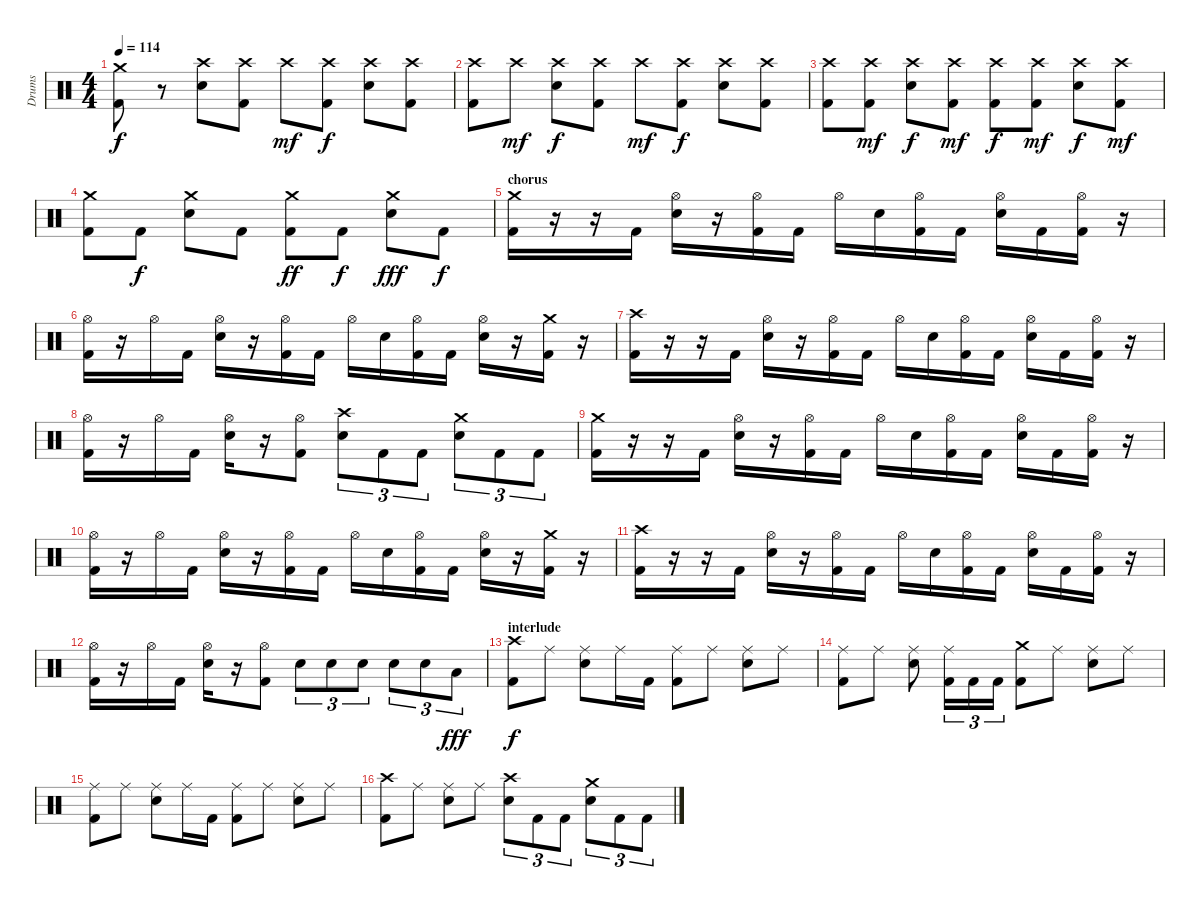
\track ("Drums" "Drums") {instrument percussion}
\staff {score}
\articulation defaults
\ts (4 4)
\tempo 114
\clef neutral
\ks c
("Crash medium (hit)" "Kick (hit) 2").8{dy f} r.8 ("Crash high (hit)" "Snare (hit) 2").8 ("Crash high (hit)" "Kick (hit) 2").8 "Crash high (hit)".8{dy mf} ("Crash high (hit)" "Kick (hit) 2").8{dy f} ("Crash high (hit)" "Snare (hit) 2").8 ("Crash high (hit)" "Kick (hit) 2").8 |
("Crash high (hit)" "Kick (hit) 2").8 "Crash high (hit)".8{dy mf} ("Crash high (hit)" "Snare (hit) 2").8{dy f} ("Crash high (hit)" "Kick (hit) 2").8 "Crash high (hit)".8{dy mf} ("Crash high (hit)" "Kick (hit) 2").8{dy f} ("Crash high (hit)" "Snare (hit) 2").8 ("Crash high (hit)" "Kick (hit) 2").8 |
("Crash high (hit)" "Kick (hit) 2").8 ("Crash high (hit)" "Kick (hit) 2").8{dy mf} ("Crash high (hit)" "Snare (hit) 2").8{dy f} ("Crash high (hit)" "Kick (hit) 2").8{dy mf} ("Crash high (hit)" "Kick (hit) 2").8{dy f} ("Crash high (hit)" "Kick (hit) 2").8{dy mf} ("Crash high (hit)" "Snare (hit) 2").8{dy f} ("Crash high (hit)" "Kick (hit) 2").8{dy mf} |
("Crash medium (hit)" "Kick (hit) 2").8 "Kick (hit) 2".8{dy f} ("Crash medium (hit)" "Snare (hit) 2").8 "Kick (hit) 2".8 ("Crash medium (hit)" "Kick (hit) 2").8{dy ff} "Kick (hit) 2".8{dy f} ("Crash medium (hit)" "Snare (hit) 2").8{dy fff} "Kick (hit) 2".8{dy f} |
\section ("" "chorus")
("Crash medium (hit)" "Kick (hit) 2").16 r.16 r.16 "Kick (hit) 2".16 ("Hi-Hat (open)" "Snare (hit) 2").16 r.16 ("Hi-Hat (open)" "Kick (hit) 2").16 "Kick (hit) 2".16 "Hi-Hat (open)".16 "Snare (hit) 2".16 ("Hi-Hat (open)" "Kick (hit) 2").16 "Kick (hit) 2".16 ("Hi-Hat (open)" "Snare (hit) 2").16 "Kick (hit) 2".16 ("Hi-Hat (open)" "Kick (hit) 2").16 r.16 |
("Hi-Hat (open)" "Kick (hit) 2").16 r.16 "Hi-Hat (open)".16 "Kick (hit) 2".16 ("Hi-Hat (open)" "Snare (hit) 2").16 r.16 ("Hi-Hat (open)" "Kick (hit) 2").16 "Kick (hit) 2".16 "Hi-Hat (open)".16 "Snare (hit) 2".16 ("Hi-Hat (open)" "Kick (hit) 2").16 "Kick (hit) 2".16 ("Hi-Hat (open)" "Snare (hit) 2").16 r.16 ("Crash medium (hit)" "Kick (hit) 2").16 r.16 |
("Crash high (hit)" "Kick (hit) 2").16 r.16 r.16 "Kick (hit) 2".16 ("Hi-Hat (open)" "Snare (hit) 2").16 r.16 ("Hi-Hat (open)" "Kick (hit) 2").16 "Kick (hit) 2".16 "Hi-Hat (open)".16 "Snare (hit) 2".16 ("Hi-Hat (open)" "Kick (hit) 2").16 "Kick (hit) 2".16 ("Hi-Hat (open)" "Snare (hit) 2").16 "Kick (hit) 2".16 ("Hi-Hat (open)" "Kick (hit) 2").16 r.16 |
("Hi-Hat (open)" "Kick (hit) 2").16 r.16 "Hi-Hat (open)".16 "Kick (hit) 2".16 ("Hi-Hat (open)" "Snare (hit) 2").16 r.16 ("Hi-Hat (open)" "Kick (hit) 2").8 ("Crash high (hit)" "Snare (hit) 2").8{tu (3 2)} "Kick (hit) 2".8{tu (3 2)} "Kick (hit) 2".8{tu (3 2)} ("Crash medium (hit)" "Snare (hit) 2").8{tu (3 2)} "Kick (hit) 2".8{tu (3 2)} "Kick (hit) 2".8{tu (3 2)} |
("Crash medium (hit)" "Kick (hit) 2").16 r.16 r.16 "Kick (hit) 2".16 ("Hi-Hat (open)" "Snare (hit) 2").16 r.16 ("Hi-Hat (open)" "Kick (hit) 2").16 "Kick (hit) 2".16 "Hi-Hat (open)".16 "Snare (hit) 2".16 ("Hi-Hat (open)" "Kick (hit) 2").16 "Kick (hit) 2".16 ("Hi-Hat (open)" "Snare (hit) 2").16 "Kick (hit) 2".16 ("Hi-Hat (open)" "Kick (hit) 2").16 r.16 |
("Hi-Hat (open)" "Kick (hit) 2").16 r.16 "Hi-Hat (open)".16 "Kick (hit) 2".16 ("Hi-Hat (open)" "Snare (hit) 2").16 r.16 ("Hi-Hat (open)" "Kick (hit) 2").16 "Kick (hit) 2".16 "Hi-Hat (open)".16 "Snare (hit) 2".16 ("Hi-Hat (open)" "Kick (hit) 2").16 "Kick (hit) 2".16 ("Hi-Hat (open)" "Snare (hit) 2").16 r.16 ("Crash medium (hit)" "Kick (hit) 2").16 r.16 |
("Crash high (hit)" "Kick (hit) 2").16 r.16 r.16 "Kick (hit) 2".16 ("Hi-Hat (open)" "Snare (hit) 2").16 r.16 ("Hi-Hat (open)" "Kick (hit) 2").16 "Kick (hit) 2".16 "Hi-Hat (open)".16 "Snare (hit) 2".16 ("Hi-Hat (open)" "Kick (hit) 2").16 "Kick (hit) 2".16 ("Hi-Hat (open)" "Snare (hit) 2").16 "Kick (hit) 2".16 ("Hi-Hat (open)" "Kick (hit) 2").16 r.16 |
("Hi-Hat (open)" "Kick (hit) 2").16 r.16 "Hi-Hat (open)".16 "Kick (hit) 2".16 ("Hi-Hat (open)" "Snare (hit) 2").16 r.16 ("Hi-Hat (open)" "Kick (hit) 2").8 "Snare (hit) 2".8{tu (3 2)} "Snare (hit) 2".8{tu (3 2)} "Snare (hit) 2".8{tu (3 2)} "Snare (hit) 2".8{tu (3 2)} "Snare (hit) 2".8{tu (3 2)} "Low Tom (hit)".8{tu (3 2) dy fff} |
\section ("" "interlude")
("Crash high (hit)" "Kick (hit) 2").8{dy f} "Ride (middle)".8 ("Ride (middle)" "Snare (hit) 2").8 "Ride (middle)".16 "Kick (hit) 2".16 ("Ride (middle)" "Kick (hit) 2").8 "Ride (middle)".8 ("Ride (middle)" "Snare (hit) 2").8 "Ride (middle)".8 |
("Ride (middle)" "Kick (hit) 2").8 "Ride (middle)".8 ("Ride (middle)" "Snare (hit) 2").8 ("Ride (middle)" "Kick (hit) 2").16{tu (3 2)} "Kick (hit) 2".16{tu (3 2)} "Kick (hit) 2".16{tu (3 2)} ("Crash medium (hit)" "Kick (hit) 2").8 "Ride (middle)".8 ("Ride (middle)" "Snare (hit) 2").8 "Ride (middle)".8 |
("Ride (middle)" "Kick (hit) 2").8 "Ride (middle)".8 ("Ride (middle)" "Snare (hit) 2").8 "Ride (middle)".16 "Kick (hit) 2".16 ("Ride (middle)" "Kick (hit) 2").8 "Ride (middle)".8 ("Ride (middle)" "Snare (hit) 2").8 "Ride (middle)".8 |
("Crash high (hit)" "Kick (hit) 2").8 "Ride (middle)".8 ("Ride (middle)" "Snare (hit) 2").8 "Ride (middle)".8 ("Crash high (hit)" "Snare (hit) 2").8{tu (3 2)} "Kick (hit) 2".8{tu (3 2)} "Kick (hit) 2".8{tu (3 2)} ("Crash medium (hit)" "Snare (hit) 2").8{tu (3 2)} "Kick (hit) 2".8{tu (3 2)} "Kick (hit) 2".8{tu (3 2)}
